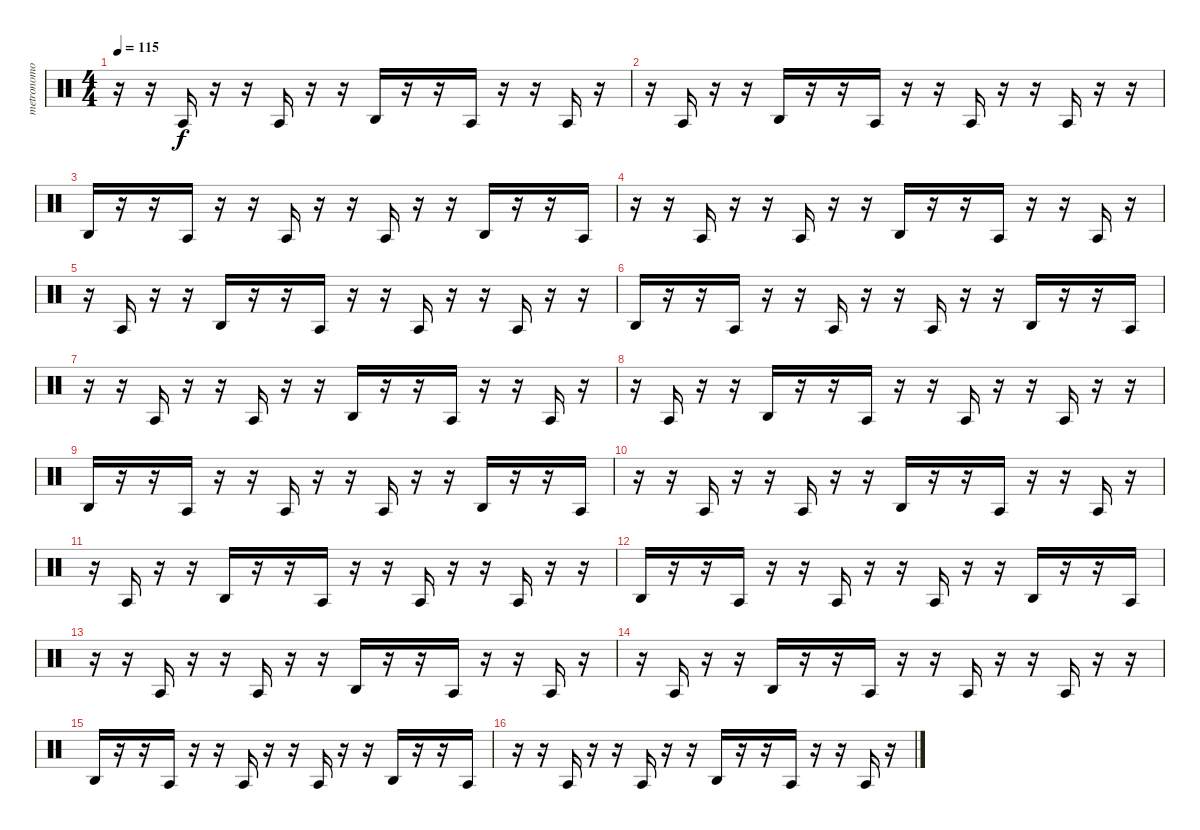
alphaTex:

\track ("metronomo" "metronomo") {mute instrument percussion}
\staff {score}
\articulation defaults
\ts (4 4)
\tempo 115
\clef neutral
\ks c
r.16{dy f} r.16 "Agogo tow (hit)".16 r.16 r.16 "Agogo tow (hit)".16 r.16 r.16 "Agogo high (hit)".16 r.16 r.16 "Agogo tow (hit)".16 r.16 r.16 "Agogo tow (hit)".16 r.16 |
r.16 "Agogo tow (hit)".16 r.16 r.16 "Agogo high (hit)".16 r.16 r.16 "Agogo tow (hit)".16 r.16 r.16 "Agogo tow (hit)".16 r.16 r.16 "Agogo tow (hit)".16 r.16 r.16 |
"Agogo high (hit)".16 r.16 r.16 "Agogo tow (hit)".16 r.16 r.16 "Agogo tow (hit)".16 r.16 r.16 "Agogo tow (hit)".16 r.16 r.16 "Agogo high (hit)".16 r.16 r.16 "Agogo tow (hit)".16 |
r.16 r.16 "Agogo tow (hit)".16 r.16 r.16 "Agogo tow (hit)".16 r.16 r.16 "Agogo high (hit)".16 r.16 r.16 "Agogo tow (hit)".16 r.16 r.16 "Agogo tow (hit)".16 r.16 |
r.16 "Agogo tow (hit)".16 r.16 r.16 "Agogo high (hit)".16 r.16 r.16 "Agogo tow (hit)".16 r.16 r.16 "Agogo tow (hit)".16 r.16 r.16 "Agogo tow (hit)".16 r.16 r.16 |
"Agogo high (hit)".16 r.16 r.16 "Agogo tow (hit)".16 r.16 r.16 "Agogo tow (hit)".16 r.16 r.16 "Agogo tow (hit)".16 r.16 r.16 "Agogo high (hit)".16 r.16 r.16 "Agogo tow (hit)".16 |
r.16 r.16 "Agogo tow (hit)".16 r.16 r.16 "Agogo tow (hit)".16 r.16 r.16 "Agogo high (hit)".16 r.16 r.16 "Agogo tow (hit)".16 r.16 r.16 "Agogo tow (hit)".16 r.16 |
r.16 "Agogo tow (hit)".16 r.16 r.16 "Agogo high (hit)".16 r.16 r.16 "Agogo tow (hit)".16 r.16 r.16 "Agogo tow (hit)".16 r.16 r.16 "Agogo tow (hit)".16 r.16 r.16 |
"Agogo high (hit)".16 r.16 r.16 "Agogo tow (hit)".16 r.16 r.16 "Agogo tow (hit)".16 r.16 r.16 "Agogo tow (hit)".16 r.16 r.16 "Agogo high (hit)".16 r.16 r.16 "Agogo tow (hit)".16 |
r.16 r.16 "Agogo tow (hit)".16 r.16 r.16 "Agogo tow (hit)".16 r.16 r.16 "Agogo high (hit)".16 r.16 r.16 "Agogo tow (hit)".16 r.16 r.16 "Agogo tow (hit)".16 r.16 |
r.16 "Agogo tow (hit)".16 r.16 r.16 "Agogo high (hit)".16 r.16 r.16 "Agogo tow (hit)".16 r.16 r.16 "Agogo tow (hit)".16 r.16 r.16 "Agogo tow (hit)".16 r.16 r.16 |
"Agogo high (hit)".16 r.16 r.16 "Agogo tow (hit)".16 r.16 r.16 "Agogo tow (hit)".16 r.16 r.16 "Agogo tow (hit)".16 r.16 r.16 "Agogo high (hit)".16 r.16 r.16 "Agogo tow (hit)".16 |
r.16 r.16 "Agogo tow (hit)".16 r.16 r.16 "Agogo tow (hit)".16 r.16 r.16 "Agogo high (hit)".16 r.16 r.16 "Agogo tow (hit)".16 r.16 r.16 "Agogo tow (hit)".16 r.16 |
r.16 "Agogo tow (hit)".16 r.16 r.16 "Agogo high (hit)".16 r.16 r.16 "Agogo tow (hit)".16 r.16 r.16 "Agogo tow (hit)".16 r.16 r.16 "Agogo tow (hit)".16 r.16 r.16 |
"Agogo high (hit)".16 r.16 r.16 "Agogo tow (hit)".16 r.16 r.16 "Agogo tow (hit)".16 r.16 r.16 "Agogo tow (hit)".16 r.16 r.16 "Agogo high (hit)".16 r.16 r.16 "Agogo tow (hit)".16 |
r.16 r.16 "Agogo tow (hit)".16 r.16 r.16 "Agogo tow (hit)".16 r.16 r.16 "Agogo high (hit)".16 r.16 r.16 "Agogo tow (hit)".16 r.16 r.16 "Agogo tow (hit)".16 r.16
